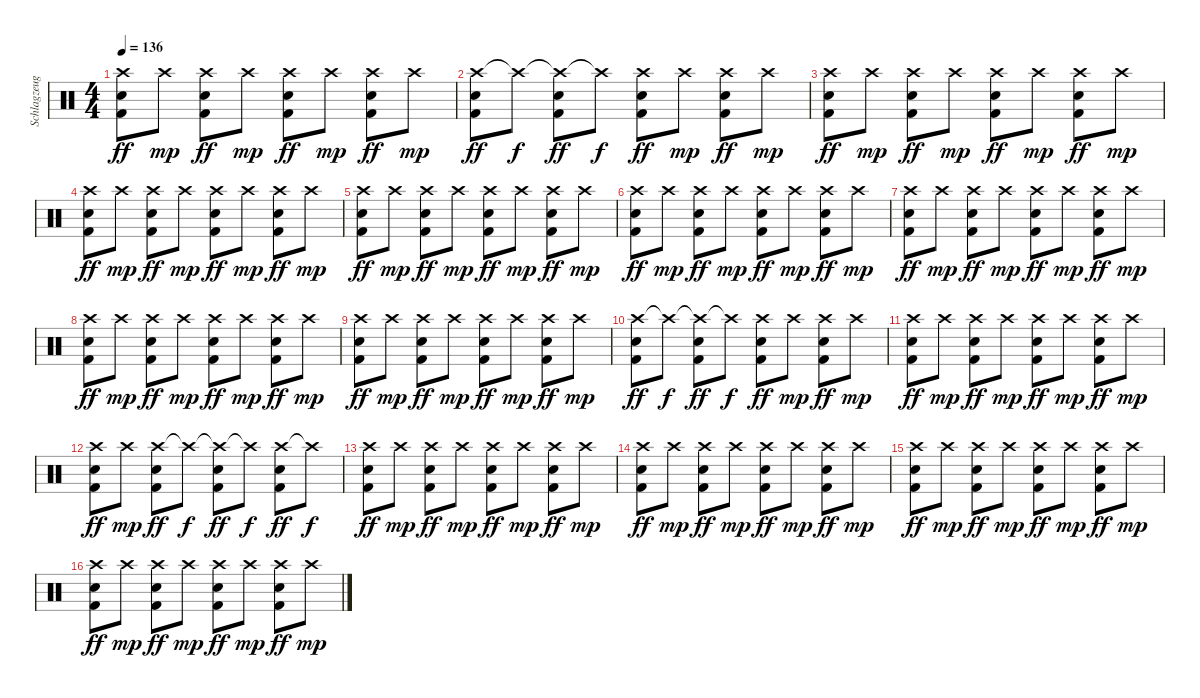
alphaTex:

\track ("Schlagzeug - der Hund Marie" "Schlagzeug") {instrument percussion}
\staff {score}
\articulation defaults
\ts (4 4)
\tempo 136
\clef neutral
\ks c
("Crash high (hit)" "Snare (hit) 2" "Kick (hit) 2").8{dy ff} "Crash high (hit)".8{dy mp} ("Crash high (hit)" "Snare (hit) 2" "Kick (hit) 2").8{dy ff} "Crash high (hit)".8{dy mp} ("Crash high (hit)" "Snare (hit) 2" "Kick (hit) 2").8{dy ff} "Crash high (hit)".8{dy mp} ("Crash high (hit)" "Snare (hit) 2" "Kick (hit) 2").8{dy ff} "Crash high (hit)".8{dy mp} |
("Crash high (hit)" "Snare (hit) 2" "Kick (hit) 2").8{dy ff} "Crash high (hit)"{t}.8{dy f} ("Crash high (hit)"{t} "Snare (hit) 2" "Kick (hit) 2").8{dy ff} "Crash high (hit)"{t}.8{dy f} ("Crash high (hit)" "Snare (hit) 2" "Kick (hit) 2").8{dy ff} "Crash high (hit)".8{dy mp} ("Crash high (hit)" "Snare (hit) 2" "Kick (hit) 2").8{dy ff} "Crash high (hit)".8{dy mp} |
("Crash high (hit)" "Snare (hit) 2" "Kick (hit) 2").8{dy ff} "Crash high (hit)".8{dy mp} ("Crash high (hit)" "Snare (hit) 2" "Kick (hit) 2").8{dy ff} "Crash high (hit)".8{dy mp} ("Crash high (hit)" "Snare (hit) 2" "Kick (hit) 2").8{dy ff} "Crash high (hit)".8{dy mp} ("Crash high (hit)" "Snare (hit) 2" "Kick (hit) 2").8{dy ff} "Crash high (hit)".8{dy mp} |
("Crash high (hit)" "Snare (hit) 2" "Kick (hit) 2").8{dy ff} "Crash high (hit)".8{dy mp} ("Crash high (hit)" "Snare (hit) 2" "Kick (hit) 2").8{dy ff} "Crash high (hit)".8{dy mp} ("Crash high (hit)" "Snare (hit) 2" "Kick (hit) 2").8{dy ff} "Crash high (hit)".8{dy mp} ("Crash high (hit)" "Snare (hit) 2" "Kick (hit) 2").8{dy ff} "Crash high (hit)".8{dy mp} |
("Crash high (hit)" "Snare (hit) 2" "Kick (hit) 2").8{dy ff} "Crash high (hit)".8{dy mp} ("Crash high (hit)" "Snare (hit) 2" "Kick (hit) 2").8{dy ff} "Crash high (hit)".8{dy mp} ("Crash high (hit)" "Snare (hit) 2" "Kick (hit) 2").8{dy ff} "Crash high (hit)".8{dy mp} ("Crash high (hit)" "Snare (hit) 2" "Kick (hit) 2").8{dy ff} "Crash high (hit)".8{dy mp} |
("Crash high (hit)" "Snare (hit) 2" "Kick (hit) 2").8{dy ff} "Crash high (hit)".8{dy mp} ("Crash high (hit)" "Snare (hit) 2" "Kick (hit) 2").8{dy ff} "Crash high (hit)".8{dy mp} ("Crash high (hit)" "Snare (hit) 2" "Kick (hit) 2").8{dy ff} "Crash high (hit)".8{dy mp} ("Crash high (hit)" "Snare (hit) 2" "Kick (hit) 2").8{dy ff} "Crash high (hit)".8{dy mp} |
("Crash high (hit)" "Snare (hit) 2" "Kick (hit) 2").8{dy ff} "Crash high (hit)".8{dy mp} ("Crash high (hit)" "Snare (hit) 2" "Kick (hit) 2").8{dy ff} "Crash high (hit)".8{dy mp} ("Crash high (hit)" "Snare (hit) 2" "Kick (hit) 2").8{dy ff} "Crash high (hit)".8{dy mp} ("Crash high (hit)" "Snare (hit) 2" "Kick (hit) 2").8{dy ff} "Crash high (hit)".8{dy mp} |
("Crash high (hit)" "Snare (hit) 2" "Kick (hit) 2").8{dy ff} "Crash high (hit)".8{dy mp} ("Crash high (hit)" "Snare (hit) 2" "Kick (hit) 2").8{dy ff} "Crash high (hit)".8{dy mp} ("Crash high (hit)" "Snare (hit) 2" "Kick (hit) 2").8{dy ff} "Crash high (hit)".8{dy mp} ("Crash high (hit)" "Snare (hit) 2" "Kick (hit) 2").8{dy ff} "Crash high (hit)".8{dy mp} |
("Crash high (hit)" "Snare (hit) 2" "Kick (hit) 2").8{dy ff} "Crash high (hit)".8{dy mp} ("Crash high (hit)" "Snare (hit) 2" "Kick (hit) 2").8{dy ff} "Crash high (hit)".8{dy mp} ("Crash high (hit)" "Snare (hit) 2" "Kick (hit) 2").8{dy ff} "Crash high (hit)".8{dy mp} ("Crash high (hit)" "Snare (hit) 2" "Kick (hit) 2").8{dy ff} "Crash high (hit)".8{dy mp} |
("Crash high (hit)" "Snare (hit) 2" "Kick (hit) 2").8{dy ff} "Crash high (hit)"{t}.8{dy f} ("Crash high (hit)"{t} "Snare (hit) 2" "Kick (hit) 2").8{dy ff} "Crash high (hit)"{t}.8{dy f} ("Crash high (hit)" "Snare (hit) 2" "Kick (hit) 2").8{dy ff} "Crash high (hit)".8{dy mp} ("Crash high (hit)" "Snare (hit) 2" "Kick (hit) 2").8{dy ff} "Crash high (hit)".8{dy mp} |
("Crash high (hit)" "Snare (hit) 2" "Kick (hit) 2").8{dy ff} "Crash high (hit)".8{dy mp} ("Crash high (hit)" "Snare (hit) 2" "Kick (hit) 2").8{dy ff} "Crash high (hit)".8{dy mp} ("Crash high (hit)" "Snare (hit) 2" "Kick (hit) 2").8{dy ff} "Crash high (hit)".8{dy mp} ("Crash high (hit)" "Snare (hit) 2" "Kick (hit) 2").8{dy ff} "Crash high (hit)".8{dy mp} |
("Crash high (hit)" "Snare (hit) 2" "Kick (hit) 2").8{dy ff} "Crash high (hit)".8{dy mp} ("Crash high (hit)" "Snare (hit) 2" "Kick (hit) 2").8{dy ff} "Crash high (hit)"{t}.8{dy f} ("Crash high (hit)"{t} "Snare (hit) 2" "Kick (hit) 2").8{dy ff} "Crash high (hit)"{t}.8{dy f} ("Crash high (hit)" "Snare (hit) 2" "Kick (hit) 2").8{dy ff} "Crash high (hit)"{t}.8{dy f} |
("Crash high (hit)" "Snare (hit) 2" "Kick (hit) 2").8{dy ff} "Crash high (hit)".8{dy mp} ("Crash high (hit)" "Snare (hit) 2" "Kick (hit) 2").8{dy ff} "Crash high (hit)".8{dy mp} ("Crash high (hit)" "Snare (hit) 2" "Kick (hit) 2").8{dy ff} "Crash high (hit)".8{dy mp} ("Crash high (hit)" "Snare (hit) 2" "Kick (hit) 2").8{dy ff} "Crash high (hit)".8{dy mp} |
("Crash high (hit)" "Snare (hit) 2" "Kick (hit) 2").8{dy ff} "Crash high (hit)".8{dy mp} ("Crash high (hit)" "Snare (hit) 2" "Kick (hit) 2").8{dy ff} "Crash high (hit)".8{dy mp} ("Crash high (hit)" "Snare (hit) 2" "Kick (hit) 2").8{dy ff} "Crash high (hit)".8{dy mp} ("Crash high (hit)" "Snare (hit) 2" "Kick (hit) 2").8{dy ff} "Crash high (hit)".8{dy mp} |
("Crash high (hit)" "Snare (hit) 2" "Kick (hit) 2").8{dy ff} "Crash high (hit)".8{dy mp} ("Crash high (hit)" "Snare (hit) 2" "Kick (hit) 2").8{dy ff} "Crash high (hit)".8{dy mp} ("Crash high (hit)" "Snare (hit) 2" "Kick (hit) 2").8{dy ff} "Crash high (hit)".8{dy mp} ("Crash high (hit)" "Snare (hit) 2" "Kick (hit) 2").8{dy ff} "Crash high (hit)".8{dy mp} |
("Crash high (hit)" "Snare (hit) 2" "Kick (hit) 2").8{dy ff} "Crash high (hit)".8{dy mp} ("Crash high (hit)" "Snare (hit) 2" "Kick (hit) 2").8{dy ff} "Crash high (hit)".8{dy mp} ("Crash high (hit)" "Snare (hit) 2" "Kick (hit) 2").8{dy ff} "Crash high (hit)".8{dy mp} ("Crash high (hit)" "Snare (hit) 2" "Kick (hit) 2").8{dy ff} "Crash high (hit)".8{dy mp}
